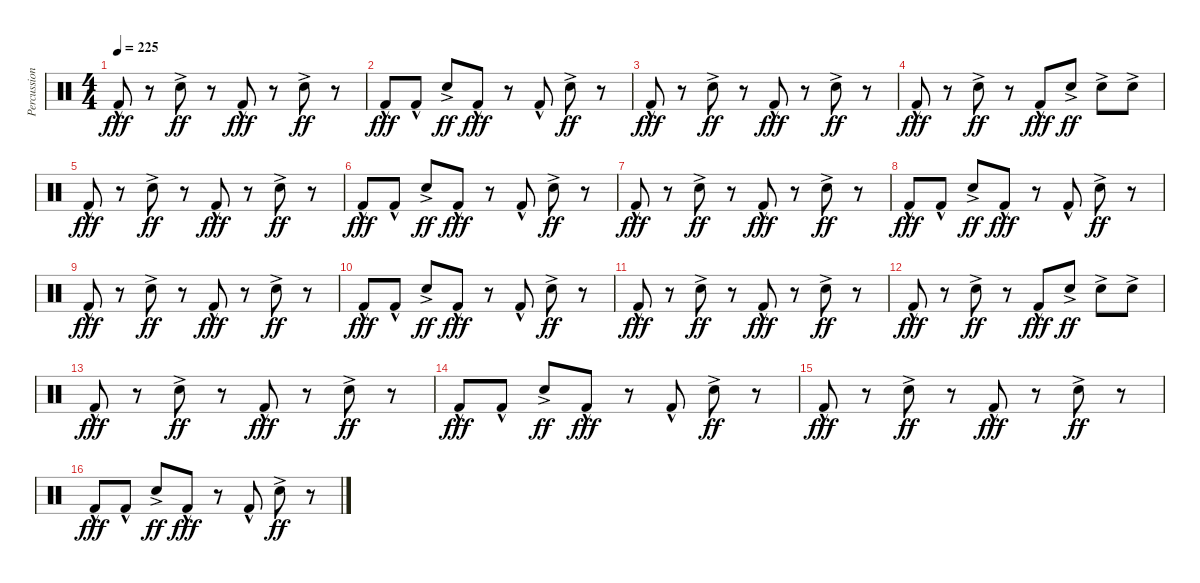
\track ("Percussion" "Percussion") {instrument percussion}
\staff {score}
\articulation defaults
\ts (4 4)
\tempo 225
\clef neutral
\ks c "Kick (hit) 2"{hac}.8{dy fff}
r.8 "Snare (hit) 2"{ac}.8{dy ff} r.8 "Kick (hit) 2"{hac}.8{dy fff} r.8 "Snare (hit) 2"{ac}.8{dy ff} r.8 |
"Kick (hit) 2"{hac}.8{dy fff} "Kick (hit) 2"{hac}.8 "Snare (hit) 2"{ac}.8{dy ff} "Kick (hit) 2"{hac}.8{dy fff} r.8 "Kick (hit) 2"{hac}.8 "Snare (hit) 2"{ac}.8{dy ff} r.8 |
"Kick (hit) 2"{hac}.8{dy fff} r.8 "Snare (hit) 2"{ac}.8{dy ff} r.8 "Kick (hit) 2"{hac}.8{dy fff} r.8 "Snare (hit) 2"{ac}.8{dy ff} r.8 |
"Kick (hit) 2"{hac}.8{dy fff} r.8 "Snare (hit) 2"{ac}.8{dy ff} r.8 "Kick (hit) 2"{hac}.8{dy fff} "Snare (hit) 2"{ac}.8{dy ff} "Snare (hit) 2"{ac}.8 "Snare (hit) 2"{ac}.8 |
"Kick (hit) 2"{hac}.8{dy fff} r.8 "Snare (hit) 2"{ac}.8{dy ff} r.8 "Kick (hit) 2"{hac}.8{dy fff} r.8 "Snare (hit) 2"{ac}.8{dy ff} r.8 |
"Kick (hit) 2"{hac}.8{dy fff} "Kick (hit) 2"{hac}.8 "Snare (hit) 2"{ac}.8{dy ff} "Kick (hit) 2"{hac}.8{dy fff} r.8 "Kick (hit) 2"{hac}.8 "Snare (hit) 2"{ac}.8{dy ff} r.8 |
"Kick (hit) 2"{hac}.8{dy fff} r.8 "Snare (hit) 2"{ac}.8{dy ff} r.8 "Kick (hit) 2"{hac}.8{dy fff} r.8 "Snare (hit) 2"{ac}.8{dy ff} r.8 |
"Kick (hit) 2"{hac}.8{dy fff} "Kick (hit) 2"{hac}.8 "Snare (hit) 2"{ac}.8{dy ff} "Kick (hit) 2"{hac}.8{dy fff} r.8 "Kick (hit) 2"{hac}.8 "Snare (hit) 2"{ac}.8{dy ff} r.8 |
"Kick (hit) 2"{hac}.8{dy fff} r.8 "Snare (hit) 2"{ac}.8{dy ff} r.8 "Kick (hit) 2"{hac}.8{dy fff} r.8 "Snare (hit) 2"{ac}.8{dy ff} r.8 |
"Kick (hit) 2"{hac}.8{dy fff} "Kick (hit) 2"{hac}.8 "Snare (hit) 2"{ac}.8{dy ff} "Kick (hit) 2"{hac}.8{dy fff} r.8 "Kick (hit) 2"{hac}.8 "Snare (hit) 2"{ac}.8{dy ff} r.8 |
"Kick (hit) 2"{hac}.8{dy fff} r.8 "Snare (hit) 2"{ac}.8{dy ff} r.8 "Kick (hit) 2"{hac}.8{dy fff} r.8 "Snare (hit) 2"{ac}.8{dy ff} r.8 |
"Kick (hit) 2"{hac}.8{dy fff} r.8 "Snare (hit) 2"{ac}.8{dy ff} r.8 "Kick (hit) 2"{hac}.8{dy fff} "Snare (hit) 2"{ac}.8{dy ff} "Snare (hit) 2"{ac}.8 "Snare (hit) 2"{ac}.8 |
"Kick (hit) 2"{hac}.8{dy fff} r.8 "Snare (hit) 2"{ac}.8{dy ff} r.8 "Kick (hit) 2"{hac}.8{dy fff} r.8 "Snare (hit) 2"{ac}.8{dy ff} r.8 |
"Kick (hit) 2"{hac}.8{dy fff} "Kick (hit) 2"{hac}.8 "Snare (hit) 2"{ac}.8{dy ff} "Kick (hit) 2"{hac}.8{dy fff} r.8 "Kick (hit) 2"{hac}.8 "Snare (hit) 2"{ac}.8{dy ff} r.8 |
"Kick (hit) 2"{hac}.8{dy fff} r.8 "Snare (hit) 2"{ac}.8{dy ff} r.8 "Kick (hit) 2"{hac}.8{dy fff} r.8 "Snare (hit) 2"{ac}.8{dy ff} r.8 |
"Kick (hit) 2"{hac}.8{dy fff} "Kick (hit) 2"{hac}.8 "Snare (hit) 2"{ac}.8{dy ff} "Kick (hit) 2"{hac}.8{dy fff} r.8 "Kick (hit) 2"{hac}.8 "Snare (hit) 2"{ac}.8{dy ff} r.8
